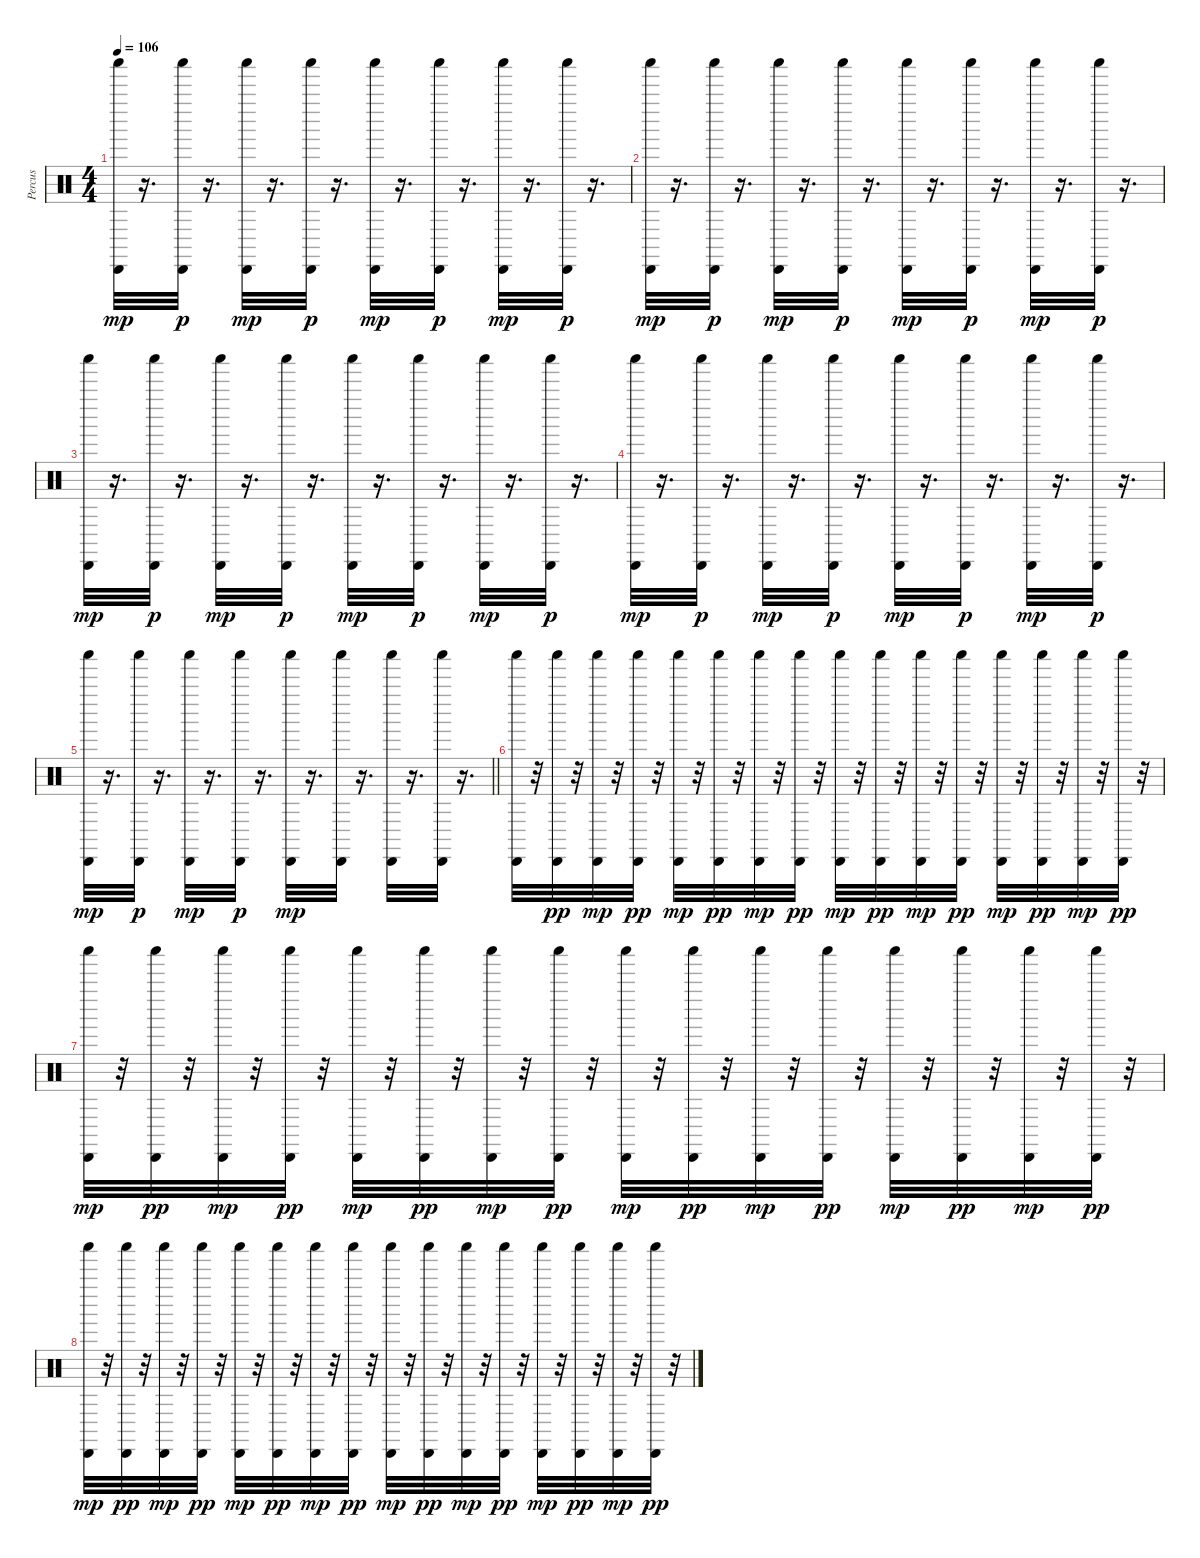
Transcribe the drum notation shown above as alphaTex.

\track ("Percus" "Percus") {instrument percussion}
\staff {score}
\articulation defaults
\ts (4 4)
\tempo 106
\clef neutral
\ks c
("Shaker (hit)" "Cabasa (hit)").32{dy mp} r.16{d} ("Shaker (hit)" "Cabasa (hit)").32{dy p} r.16{d} ("Shaker (hit)" "Cabasa (hit)").32{dy mp} r.16{d} ("Shaker (hit)" "Cabasa (hit)").32{dy p} r.16{d} ("Shaker (hit)" "Cabasa (hit)").32{dy mp} r.16{d} ("Shaker (hit)" "Cabasa (hit)").32{dy p} r.16{d} ("Shaker (hit)" "Cabasa (hit)").32{dy mp} r.16{d} ("Shaker (hit)" "Cabasa (hit)").32{dy p} r.16{d} |
("Shaker (hit)" "Cabasa (hit)").32{dy mp} r.16{d} ("Shaker (hit)" "Cabasa (hit)").32{dy p} r.16{d} ("Shaker (hit)" "Cabasa (hit)").32{dy mp} r.16{d} ("Shaker (hit)" "Cabasa (hit)").32{dy p} r.16{d} ("Shaker (hit)" "Cabasa (hit)").32{dy mp} r.16{d} ("Shaker (hit)" "Cabasa (hit)").32{dy p} r.16{d} ("Shaker (hit)" "Cabasa (hit)").32{dy mp} r.16{d} ("Shaker (hit)" "Cabasa (hit)").32{dy p} r.16{d} |
("Shaker (hit)" "Cabasa (hit)").32{dy mp} r.16{d} ("Shaker (hit)" "Cabasa (hit)").32{dy p} r.16{d} ("Shaker (hit)" "Cabasa (hit)").32{dy mp} r.16{d} ("Shaker (hit)" "Cabasa (hit)").32{dy p} r.16{d} ("Shaker (hit)" "Cabasa (hit)").32{dy mp} r.16{d} ("Shaker (hit)" "Cabasa (hit)").32{dy p} r.16{d} ("Shaker (hit)" "Cabasa (hit)").32{dy mp} r.16{d} ("Shaker (hit)" "Cabasa (hit)").32{dy p} r.16{d} |
("Shaker (hit)" "Cabasa (hit)").32{dy mp} r.16{d} ("Shaker (hit)" "Cabasa (hit)").32{dy p} r.16{d} ("Shaker (hit)" "Cabasa (hit)").32{dy mp} r.16{d} ("Shaker (hit)" "Cabasa (hit)").32{dy p} r.16{d} ("Shaker (hit)" "Cabasa (hit)").32{dy mp} r.16{d} ("Shaker (hit)" "Cabasa (hit)").32{dy p} r.16{d} ("Shaker (hit)" "Cabasa (hit)").32{dy mp} r.16{d} ("Shaker (hit)" "Cabasa (hit)").32{dy p} r.16{d} |
\barLineRight lightlight
("Shaker (hit)" "Cabasa (hit)").32{dy mp} r.16{d} ("Shaker (hit)" "Cabasa (hit)").32{dy p} r.16{d} ("Shaker (hit)" "Cabasa (hit)").32{dy mp} r.16{d} ("Shaker (hit)" "Cabasa (hit)").32{dy p} r.16{d} ("Shaker (hit)" "Cabasa (hit)").32{dy mp} r.16{d} ("Shaker (hit)" "Cabasa (hit)").32 r.16{d} ("Shaker (hit)" "Cabasa (hit)").32 r.16{d} ("Shaker (hit)" "Cabasa (hit)").32 r.16{d} |
("Shaker (hit)" "Cabasa (hit)").32 r.32 ("Shaker (hit)" "Cabasa (hit)").32{dy pp} r.32 ("Shaker (hit)" "Cabasa (hit)").32{dy mp} r.32 ("Shaker (hit)" "Cabasa (hit)").32{dy pp} r.32 ("Shaker (hit)" "Cabasa (hit)").32{dy mp} r.32 ("Shaker (hit)" "Cabasa (hit)").32{dy pp} r.32 ("Shaker (hit)" "Cabasa (hit)").32{dy mp} r.32 ("Shaker (hit)" "Cabasa (hit)").32{dy pp} r.32 ("Shaker (hit)" "Cabasa (hit)").32{dy mp} r.32 ("Shaker (hit)" "Cabasa (hit)").32{dy pp} r.32 ("Shaker (hit)" "Cabasa (hit)").32{dy mp} r.32 ("Shaker (hit)" "Cabasa (hit)").32{dy pp} r.32 ("Shaker (hit)" "Cabasa (hit)").32{dy mp} r.32 ("Shaker (hit)" "Cabasa (hit)").32{dy pp} r.32 ("Shaker (hit)" "Cabasa (hit)").32{dy mp} r.32 ("Shaker (hit)" "Cabasa (hit)").32{dy pp} r.32 |
("Shaker (hit)" "Cabasa (hit)").32{dy mp} r.32 ("Shaker (hit)" "Cabasa (hit)").32{dy pp} r.32 ("Shaker (hit)" "Cabasa (hit)").32{dy mp} r.32 ("Shaker (hit)" "Cabasa (hit)").32{dy pp} r.32 ("Shaker (hit)" "Cabasa (hit)").32{dy mp} r.32 ("Shaker (hit)" "Cabasa (hit)").32{dy pp} r.32 ("Shaker (hit)" "Cabasa (hit)").32{dy mp} r.32 ("Shaker (hit)" "Cabasa (hit)").32{dy pp} r.32 ("Shaker (hit)" "Cabasa (hit)").32{dy mp} r.32 ("Shaker (hit)" "Cabasa (hit)").32{dy pp} r.32 ("Shaker (hit)" "Cabasa (hit)").32{dy mp} r.32 ("Shaker (hit)" "Cabasa (hit)").32{dy pp} r.32 ("Shaker (hit)" "Cabasa (hit)").32{dy mp} r.32 ("Shaker (hit)" "Cabasa (hit)").32{dy pp} r.32 ("Shaker (hit)" "Cabasa (hit)").32{dy mp} r.32 ("Shaker (hit)" "Cabasa (hit)").32{dy pp} r.32 |
("Shaker (hit)" "Cabasa (hit)").32{dy mp} r.32 ("Shaker (hit)" "Cabasa (hit)").32{dy pp} r.32 ("Shaker (hit)" "Cabasa (hit)").32{dy mp} r.32 ("Shaker (hit)" "Cabasa (hit)").32{dy pp} r.32 ("Shaker (hit)" "Cabasa (hit)").32{dy mp} r.32 ("Shaker (hit)" "Cabasa (hit)").32{dy pp} r.32 ("Shaker (hit)" "Cabasa (hit)").32{dy mp} r.32 ("Shaker (hit)" "Cabasa (hit)").32{dy pp} r.32 ("Shaker (hit)" "Cabasa (hit)").32{dy mp} r.32 ("Shaker (hit)" "Cabasa (hit)").32{dy pp} r.32 ("Shaker (hit)" "Cabasa (hit)").32{dy mp} r.32 ("Shaker (hit)" "Cabasa (hit)").32{dy pp} r.32 ("Shaker (hit)" "Cabasa (hit)").32{dy mp} r.32 ("Shaker (hit)" "Cabasa (hit)").32{dy pp} r.32 ("Shaker (hit)" "Cabasa (hit)").32{dy mp} r.32 ("Shaker (hit)" "Cabasa (hit)").32{dy pp} r.32
